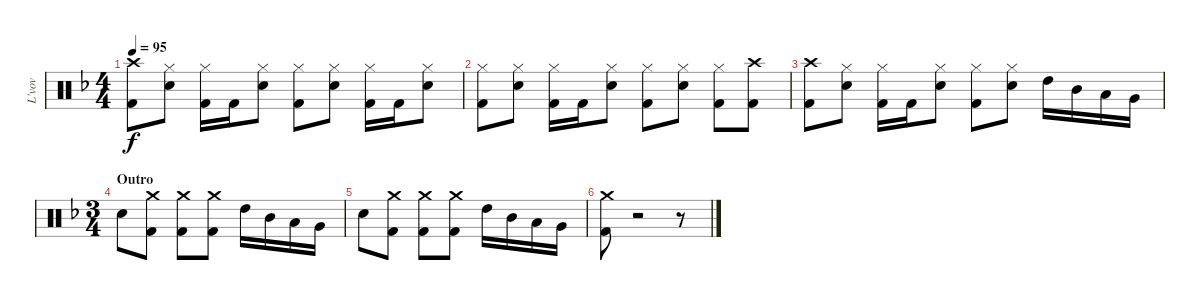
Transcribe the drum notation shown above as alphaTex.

\track ("L'vov" "L'vov") {instrument percussion}
\staff {score}
\articulation defaults
\ts (4 4)
\tempo 95
\clef neutral
\ks f
("Kick (hit) 2" "Crash high (hit)").8{dy f} ("Snare (hit) 2" "Hi-Hat (closed)").8 ("Kick (hit) 2" "Hi-Hat (closed)").16 "Kick (hit) 2".16 ("Snare (hit) 2" "Hi-Hat (closed)").8 ("Kick (hit) 2" "Hi-Hat (closed)").8 ("Snare (hit) 2" "Hi-Hat (closed)").8 ("Kick (hit) 2" "Hi-Hat (closed)").16 "Kick (hit) 2".16 ("Snare (hit) 2" "Hi-Hat (closed)").8 |
("Kick (hit) 2" "Hi-Hat (closed)").8 ("Snare (hit) 2" "Hi-Hat (closed)").8 ("Kick (hit) 2" "Hi-Hat (closed)").16 "Kick (hit) 2".16 ("Snare (hit) 2" "Hi-Hat (closed)").8 ("Kick (hit) 2" "Hi-Hat (closed)").8 ("Snare (hit) 2" "Hi-Hat (closed)").8 ("Kick (hit) 2" "Hi-Hat (closed)").8 ("Kick (hit) 2" "Crash high (hit)").8 |
("Kick (hit) 2" "Crash high (hit)").8 ("Snare (hit) 2" "Hi-Hat (closed)").8 ("Kick (hit) 2" "Hi-Hat (closed)").16 "Kick (hit) 2".16 ("Snare (hit) 2" "Hi-Hat (closed)").8 ("Kick (hit) 2" "Hi-Hat (closed)").8 ("Snare (hit) 2" "Hi-Hat (closed)").8 "High Tom (hit)".16 "Mid Tom (hit)".16 "Low Tom (hit)".16 "Very Low Tom (hit)".16 |
\ts (3 4)
\section ("" "Outro")
"Snare (hit) 2".8 ("Kick (hit) 2" "Crash medium (hit)").8 ("Kick (hit) 2" "Crash medium (hit)").8 ("Kick (hit) 2" "Crash medium (hit)").8 "High Tom (hit)".16 "Mid Tom (hit)".16 "Low Tom (hit)".16 "Very Low Tom (hit)".16 |
"Snare (hit) 2".8 ("Kick (hit) 2" "Crash medium (hit)").8 ("Kick (hit) 2" "Crash medium (hit)").8 ("Kick (hit) 2" "Crash medium (hit)").8 "High Tom (hit)".16 "Mid Tom (hit)".16 "Low Tom (hit)".16 "Very Low Tom (hit)".16 |
("Kick (hit) 2" "Crash medium (hit)").8 r.2 r.8
